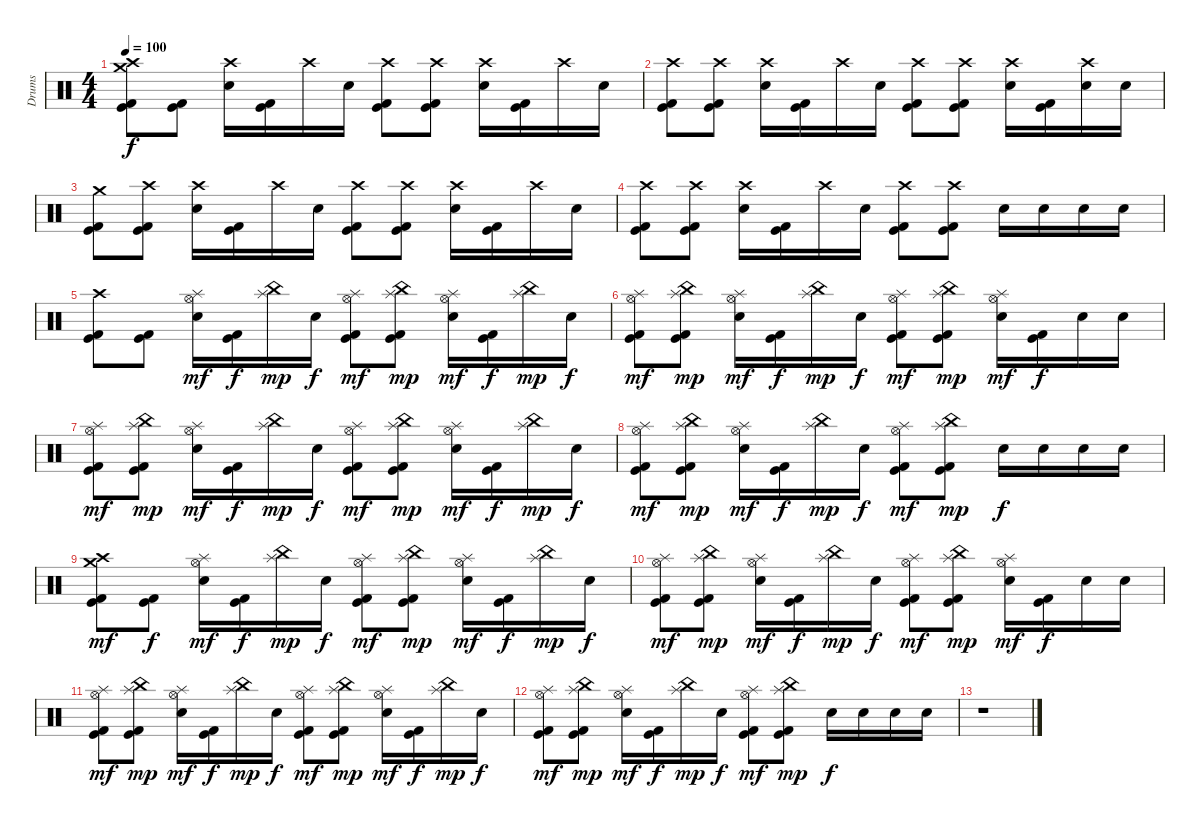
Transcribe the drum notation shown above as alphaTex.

\track ("Drums" "Drums") {instrument percussion}
\staff {score}
\articulation defaults
\ts (4 4)
\tempo 100
\clef neutral
\ks c
("Crash high (hit)" "Crash medium (hit)" "Kick (hit)" "Kick (hit) 2").8{dy f} ("Kick (hit)" "Kick (hit) 2").8 ("Crash high (hit)" "Snare (hit) 2").16 ("Kick (hit)" "Kick (hit) 2").16 "Crash high (hit)".16 "Snare (hit) 2".16 ("Crash high (hit)" "Kick (hit)" "Kick (hit) 2").8 ("Crash high (hit)" "Kick (hit)" "Kick (hit) 2").8 ("Crash high (hit)" "Snare (hit) 2").16 ("Kick (hit)" "Kick (hit) 2").16 "Crash high (hit)".16 "Snare (hit) 2".16 |
("Crash high (hit)" "Kick (hit)" "Kick (hit) 2").8 ("Crash high (hit)" "Kick (hit)" "Kick (hit) 2").8 ("Crash high (hit)" "Snare (hit) 2").16 ("Kick (hit)" "Kick (hit) 2").16 "Crash high (hit)".16 "Snare (hit) 2".16 ("Crash high (hit)" "Kick (hit)" "Kick (hit) 2").8 ("Crash high (hit)" "Kick (hit)" "Kick (hit) 2").8 ("Crash high (hit)" "Snare (hit) 2").16 ("Kick (hit)" "Kick (hit) 2").16 ("Crash high (hit)" "Snare (hit) 2").16 "Snare (hit) 2".16 |
("Crash medium (hit)" "Kick (hit)" "Kick (hit) 2").8 ("Crash high (hit)" "Kick (hit)" "Kick (hit) 2").8 ("Crash high (hit)" "Snare (hit) 2").16 ("Kick (hit)" "Kick (hit) 2").16 "Crash high (hit)".16 "Snare (hit) 2".16 ("Crash high (hit)" "Kick (hit)" "Kick (hit) 2").8 ("Crash high (hit)" "Kick (hit)" "Kick (hit) 2").8 ("Crash high (hit)" "Snare (hit) 2").16 ("Kick (hit)" "Kick (hit) 2").16 "Crash high (hit)".16 "Snare (hit) 2".16 |
("Crash high (hit)" "Kick (hit)" "Kick (hit) 2").8 ("Crash high (hit)" "Kick (hit)" "Kick (hit) 2").8 ("Crash high (hit)" "Snare (hit) 2").16 ("Kick (hit)" "Kick (hit) 2").16 "Crash high (hit)".16 "Snare (hit) 2".16 ("Crash high (hit)" "Kick (hit)" "Kick (hit) 2").8 ("Crash high (hit)" "Kick (hit)" "Kick (hit) 2").8 "Snare (hit) 2".16 "Snare (hit) 2".16 "Snare (hit) 2".16 "Snare (hit) 2".16 |
("Crash high (hit)" "Kick (hit)" "Kick (hit) 2").8 ("Kick (hit)" "Kick (hit) 2").8 ("Splash (hit)" "Hi-Hat (open)" "Snare (hit) 2").16{dy mf} ("Kick (hit)" "Kick (hit) 2").16{dy f} ("Splash (hit)" "China (hit)").16{dy mp} "Snare (hit) 2".16{dy f} ("Splash (hit)" "Hi-Hat (open)" "Kick (hit)" "Kick (hit) 2").8{dy mf} ("Splash (hit)" "China (hit)" "Kick (hit)" "Kick (hit) 2").8{dy mp} ("Splash (hit)" "Hi-Hat (open)" "Snare (hit) 2").16{dy mf} ("Kick (hit)" "Kick (hit) 2").16{dy f} ("Splash (hit)" "China (hit)").16{dy mp} "Snare (hit) 2".16{dy f} |
("Splash (hit)" "Hi-Hat (open)" "Kick (hit)" "Kick (hit) 2").8{dy mf} ("Splash (hit)" "China (hit)" "Kick (hit)" "Kick (hit) 2").8{dy mp} ("Splash (hit)" "Hi-Hat (open)" "Snare (hit) 2").16{dy mf} ("Kick (hit)" "Kick (hit) 2").16{dy f} ("Splash (hit)" "China (hit)").16{dy mp} "Snare (hit) 2".16{dy f} ("Splash (hit)" "Hi-Hat (open)" "Kick (hit)" "Kick (hit) 2").8{dy mf} ("Splash (hit)" "China (hit)" "Kick (hit)" "Kick (hit) 2").8{dy mp} ("Splash (hit)" "Hi-Hat (open)" "Snare (hit) 2").16{dy mf} ("Kick (hit)" "Kick (hit) 2").16{dy f} "Snare (hit) 2".16 "Snare (hit) 2".16 |
("Splash (hit)" "Hi-Hat (open)" "Kick (hit)" "Kick (hit) 2").8{dy mf} ("Splash (hit)" "China (hit)" "Kick (hit)" "Kick (hit) 2").8{dy mp} ("Splash (hit)" "Hi-Hat (open)" "Snare (hit) 2").16{dy mf} ("Kick (hit)" "Kick (hit) 2").16{dy f} ("Splash (hit)" "China (hit)").16{dy mp} "Snare (hit) 2".16{dy f} ("Splash (hit)" "Hi-Hat (open)" "Kick (hit)" "Kick (hit) 2").8{dy mf} ("Splash (hit)" "China (hit)" "Kick (hit)" "Kick (hit) 2").8{dy mp} ("Splash (hit)" "Hi-Hat (open)" "Snare (hit) 2").16{dy mf} ("Kick (hit)" "Kick (hit) 2").16{dy f} ("Splash (hit)" "China (hit)").16{dy mp} "Snare (hit) 2".16{dy f} |
("Splash (hit)" "Hi-Hat (open)" "Kick (hit)" "Kick (hit) 2").8{dy mf} ("Splash (hit)" "China (hit)" "Kick (hit)" "Kick (hit) 2").8{dy mp} ("Splash (hit)" "Hi-Hat (open)" "Snare (hit) 2").16{dy mf} ("Kick (hit)" "Kick (hit) 2").16{dy f} ("Splash (hit)" "China (hit)").16{dy mp} "Snare (hit) 2".16{dy f} ("Splash (hit)" "Hi-Hat (open)" "Kick (hit)" "Kick (hit) 2").8{dy mf} ("Splash (hit)" "China (hit)" "Kick (hit)" "Kick (hit) 2").8{dy mp} "Snare (hit) 2".16{dy f} "Snare (hit) 2".16 "Snare (hit) 2".16 "Snare (hit) 2".16 |
("Crash high (hit)" "Crash medium (hit)" "Kick (hit)" "Kick (hit) 2").8{dy mf} ("Kick (hit)" "Kick (hit) 2").8{dy f} ("Splash (hit)" "Hi-Hat (open)" "Snare (hit) 2").16{dy mf} ("Kick (hit)" "Kick (hit) 2").16{dy f} ("Splash (hit)" "China (hit)").16{dy mp} "Snare (hit) 2".16{dy f} ("Splash (hit)" "Hi-Hat (open)" "Kick (hit)" "Kick (hit) 2").8{dy mf} ("Splash (hit)" "China (hit)" "Kick (hit)" "Kick (hit) 2").8{dy mp} ("Splash (hit)" "Hi-Hat (open)" "Snare (hit) 2").16{dy mf} ("Kick (hit)" "Kick (hit) 2").16{dy f} ("Splash (hit)" "China (hit)").16{dy mp} "Snare (hit) 2".16{dy f} |
("Splash (hit)" "Hi-Hat (open)" "Kick (hit)" "Kick (hit) 2").8{dy mf} ("Splash (hit)" "China (hit)" "Kick (hit)" "Kick (hit) 2").8{dy mp} ("Splash (hit)" "Hi-Hat (open)" "Snare (hit) 2").16{dy mf} ("Kick (hit)" "Kick (hit) 2").16{dy f} ("Splash (hit)" "China (hit)").16{dy mp} "Snare (hit) 2".16{dy f} ("Splash (hit)" "Hi-Hat (open)" "Kick (hit)" "Kick (hit) 2").8{dy mf} ("Splash (hit)" "China (hit)" "Kick (hit)" "Kick (hit) 2").8{dy mp} ("Splash (hit)" "Hi-Hat (open)" "Snare (hit) 2").16{dy mf} ("Kick (hit)" "Kick (hit) 2").16{dy f} "Snare (hit) 2".16 "Snare (hit) 2".16 |
("Splash (hit)" "Hi-Hat (open)" "Kick (hit)" "Kick (hit) 2").8{dy mf} ("Splash (hit)" "China (hit)" "Kick (hit)" "Kick (hit) 2").8{dy mp} ("Splash (hit)" "Hi-Hat (open)" "Snare (hit) 2").16{dy mf} ("Kick (hit)" "Kick (hit) 2").16{dy f} ("Splash (hit)" "China (hit)").16{dy mp} "Snare (hit) 2".16{dy f} ("Splash (hit)" "Hi-Hat (open)" "Kick (hit)" "Kick (hit) 2").8{dy mf} ("Splash (hit)" "China (hit)" "Kick (hit)" "Kick (hit) 2").8{dy mp} ("Splash (hit)" "Hi-Hat (open)" "Snare (hit) 2").16{dy mf} ("Kick (hit)" "Kick (hit) 2").16{dy f} ("Splash (hit)" "China (hit)").16{dy mp} "Snare (hit) 2".16{dy f} |
("Splash (hit)" "Hi-Hat (open)" "Kick (hit)" "Kick (hit) 2").8{dy mf} ("Splash (hit)" "China (hit)" "Kick (hit)" "Kick (hit) 2").8{dy mp} ("Splash (hit)" "Hi-Hat (open)" "Snare (hit) 2").16{dy mf} ("Kick (hit)" "Kick (hit) 2").16{dy f} ("Splash (hit)" "China (hit)").16{dy mp} "Snare (hit) 2".16{dy f} ("Splash (hit)" "Hi-Hat (open)" "Kick (hit)" "Kick (hit) 2").8{dy mf} ("Splash (hit)" "China (hit)" "Kick (hit)" "Kick (hit) 2").8{dy mp} "Snare (hit) 2".16{dy f} "Snare (hit) 2".16 "Snare (hit) 2".16 "Snare (hit) 2".16 |
r.1
